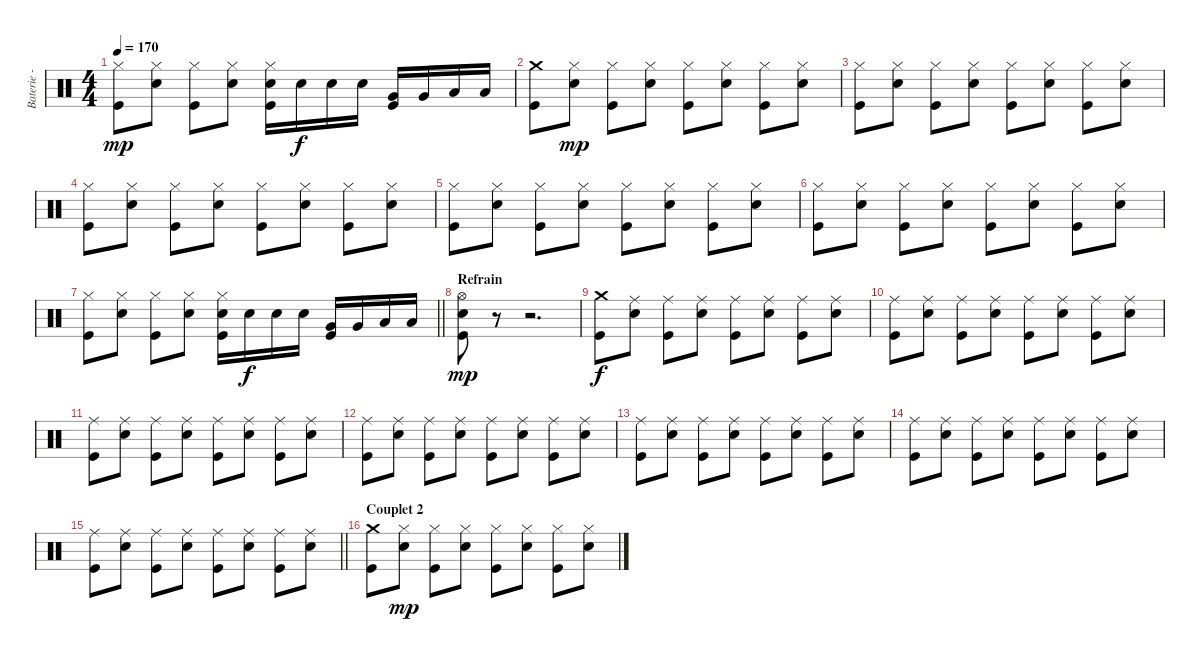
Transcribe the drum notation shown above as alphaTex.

\track ("Baterie - Guillaume" "Baterie - ") {instrument percussion}
\staff {score}
\articulation defaults
\ts (4 4)
\tempo 170
\clef neutral
\ks c
("Hi-Hat (closed)" "Kick (hit)").8{dy mp} ("Hi-Hat (closed)" "Electric Snare (hit)").8 ("Hi-Hat (closed)" "Kick (hit)").8 ("Hi-Hat (closed)" "Electric Snare (hit)").8 ("Hi-Hat (closed)" "Electric Snare (hit)" "Kick (hit)").16 "Electric Snare (hit)".16{dy f} "Electric Snare (hit)".16 "Electric Snare (hit)".16 ("Very Low Tom (hit)" "Kick (hit)").16 "Very Low Tom (hit)".16 "Low Tom (hit)".16 "Low Tom (hit)".16 |
("Crash medium (hit)" "Kick (hit)").8 ("Hi-Hat (closed)" "Electric Snare (hit)").8{dy mp} ("Hi-Hat (closed)" "Kick (hit)").8 ("Hi-Hat (closed)" "Electric Snare (hit)").8 ("Hi-Hat (closed)" "Kick (hit)").8 ("Hi-Hat (closed)" "Electric Snare (hit)").8 ("Hi-Hat (closed)" "Kick (hit)").8 ("Hi-Hat (closed)" "Electric Snare (hit)").8 |
("Hi-Hat (closed)" "Kick (hit)").8 ("Hi-Hat (closed)" "Electric Snare (hit)").8 ("Hi-Hat (closed)" "Kick (hit)").8 ("Hi-Hat (closed)" "Electric Snare (hit)").8 ("Hi-Hat (closed)" "Kick (hit)").8 ("Hi-Hat (closed)" "Electric Snare (hit)").8 ("Hi-Hat (closed)" "Kick (hit)").8 ("Hi-Hat (closed)" "Electric Snare (hit)").8 |
("Hi-Hat (closed)" "Kick (hit)").8 ("Hi-Hat (closed)" "Electric Snare (hit)").8 ("Hi-Hat (closed)" "Kick (hit)").8 ("Hi-Hat (closed)" "Electric Snare (hit)").8 ("Hi-Hat (closed)" "Kick (hit)").8 ("Hi-Hat (closed)" "Electric Snare (hit)").8 ("Hi-Hat (closed)" "Kick (hit)").8 ("Hi-Hat (closed)" "Electric Snare (hit)").8 |
("Hi-Hat (closed)" "Kick (hit)").8 ("Hi-Hat (closed)" "Electric Snare (hit)").8 ("Hi-Hat (closed)" "Kick (hit)").8 ("Hi-Hat (closed)" "Electric Snare (hit)").8 ("Hi-Hat (closed)" "Kick (hit)").8 ("Hi-Hat (closed)" "Electric Snare (hit)").8 ("Hi-Hat (closed)" "Kick (hit)").8 ("Hi-Hat (closed)" "Electric Snare (hit)").8 |
("Hi-Hat (closed)" "Kick (hit)").8 ("Hi-Hat (closed)" "Electric Snare (hit)").8 ("Hi-Hat (closed)" "Kick (hit)").8 ("Hi-Hat (closed)" "Electric Snare (hit)").8 ("Hi-Hat (closed)" "Kick (hit)").8 ("Hi-Hat (closed)" "Electric Snare (hit)").8 ("Hi-Hat (closed)" "Kick (hit)").8 ("Hi-Hat (closed)" "Electric Snare (hit)").8 |
\barLineRight lightlight
("Hi-Hat (closed)" "Kick (hit)").8 ("Hi-Hat (closed)" "Electric Snare (hit)").8 ("Hi-Hat (closed)" "Kick (hit)").8 ("Hi-Hat (closed)" "Electric Snare (hit)").8 ("Hi-Hat (closed)" "Electric Snare (hit)" "Kick (hit)").16 "Electric Snare (hit)".16{dy f} "Electric Snare (hit)".16 "Electric Snare (hit)".16 ("Very Low Tom (hit)" "Kick (hit)").16 "Very Low Tom (hit)".16 "Low Tom (hit)".16 "Low Tom (hit)".16 |
\section ("" "Refrain")
("Hi-Hat (open)" "Electric Snare (hit)" "Kick (hit)").8{dy mp} r.8 r.2{d} |
("Crash medium (hit)" "Kick (hit)").8{dy f} ("Ride (middle)" "Electric Snare (hit)").8 ("Ride (middle)" "Kick (hit)").8 ("Ride (middle)" "Electric Snare (hit)").8 ("Ride (middle)" "Kick (hit)").8 ("Ride (middle)" "Electric Snare (hit)").8 ("Ride (middle)" "Kick (hit)").8 ("Ride (middle)" "Electric Snare (hit)").8 |
("Ride (middle)" "Kick (hit)").8 ("Ride (middle)" "Electric Snare (hit)").8 ("Ride (middle)" "Kick (hit)").8 ("Ride (middle)" "Electric Snare (hit)").8 ("Ride (middle)" "Kick (hit)").8 ("Ride (middle)" "Electric Snare (hit)").8 ("Ride (middle)" "Kick (hit)").8 ("Ride (middle)" "Electric Snare (hit)").8 |
("Ride (middle)" "Kick (hit)").8 ("Ride (middle)" "Electric Snare (hit)").8 ("Ride (middle)" "Kick (hit)").8 ("Ride (middle)" "Electric Snare (hit)").8 ("Ride (middle)" "Kick (hit)").8 ("Ride (middle)" "Electric Snare (hit)").8 ("Ride (middle)" "Kick (hit)").8 ("Ride (middle)" "Electric Snare (hit)").8 |
("Ride (middle)" "Kick (hit)").8 ("Ride (middle)" "Electric Snare (hit)").8 ("Ride (middle)" "Kick (hit)").8 ("Ride (middle)" "Electric Snare (hit)").8 ("Ride (middle)" "Kick (hit)").8 ("Ride (middle)" "Electric Snare (hit)").8 ("Ride (middle)" "Kick (hit)").8 ("Ride (middle)" "Electric Snare (hit)").8 |
("Ride (middle)" "Kick (hit)").8 ("Ride (middle)" "Electric Snare (hit)").8 ("Ride (middle)" "Kick (hit)").8 ("Ride (middle)" "Electric Snare (hit)").8 ("Ride (middle)" "Kick (hit)").8 ("Ride (middle)" "Electric Snare (hit)").8 ("Ride (middle)" "Kick (hit)").8 ("Ride (middle)" "Electric Snare (hit)").8 |
("Ride (middle)" "Kick (hit)").8 ("Ride (middle)" "Electric Snare (hit)").8 ("Ride (middle)" "Kick (hit)").8 ("Ride (middle)" "Electric Snare (hit)").8 ("Ride (middle)" "Kick (hit)").8 ("Ride (middle)" "Electric Snare (hit)").8 ("Ride (middle)" "Kick (hit)").8 ("Ride (middle)" "Electric Snare (hit)").8 |
\barLineRight lightlight
("Ride (middle)" "Kick (hit)").8 ("Ride (middle)" "Electric Snare (hit)").8 ("Ride (middle)" "Kick (hit)").8 ("Ride (middle)" "Electric Snare (hit)").8 ("Ride (middle)" "Kick (hit)").8 ("Ride (middle)" "Electric Snare (hit)").8 ("Ride (middle)" "Kick (hit)").8 ("Ride (middle)" "Electric Snare (hit)").8 |
\section ("" "Couplet 2")
("Crash medium (hit)" "Kick (hit)").8 ("Hi-Hat (closed)" "Electric Snare (hit)").8{dy mp} ("Hi-Hat (closed)" "Kick (hit)").8 ("Hi-Hat (closed)" "Electric Snare (hit)").8 ("Hi-Hat (closed)" "Kick (hit)").8 ("Hi-Hat (closed)" "Electric Snare (hit)").8 ("Hi-Hat (closed)" "Kick (hit)").8 ("Hi-Hat (closed)" "Electric Snare (hit)").8
